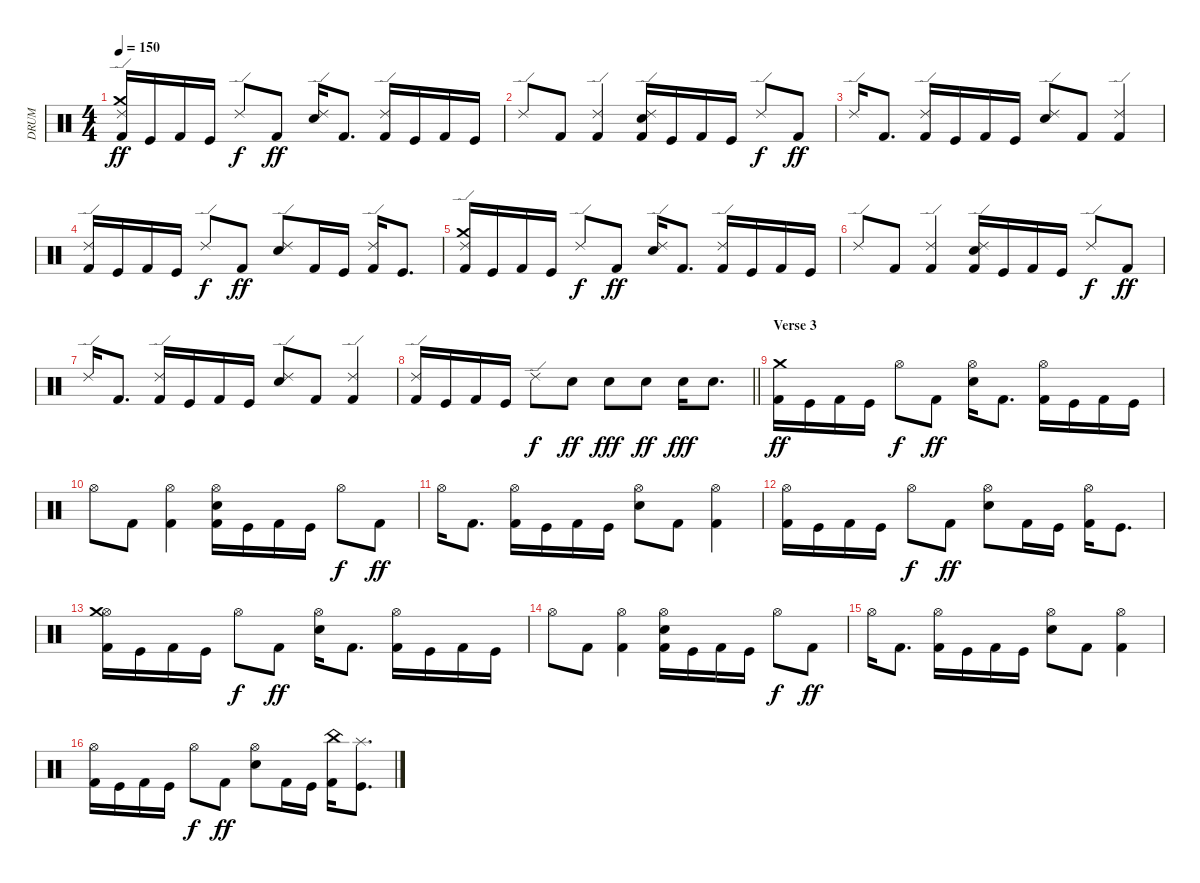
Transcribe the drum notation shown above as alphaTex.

\track ("DRUM" "DRUM") {instrument percussion}
\staff {score}
\articulation defaults
\ts (4 4)
\tempo 150
\clef neutral
\ks c
("Ride (edge) 2" "Crash medium (hit)" "Kick (hit) 2").16{dy ff} "Kick (hit)".16 "Kick (hit) 2".16 "Kick (hit)".16 "Ride (edge) 2".8{dy f} "Kick (hit) 2".8{dy ff} ("Ride (edge) 2" "Snare (hit) 2").16 "Kick (hit) 2".8{d} ("Ride (edge) 2" "Kick (hit) 2").16 "Kick (hit)".16 "Kick (hit) 2".16 "Kick (hit)".16 |
"Ride (edge) 2".8 "Kick (hit) 2".8 ("Ride (edge) 2" "Kick (hit) 2").4 ("Ride (edge) 2" "Snare (hit) 2" "Kick (hit) 2").16 "Kick (hit)".16 "Kick (hit) 2".16 "Kick (hit)".16 "Ride (edge) 2".8{dy f} "Kick (hit) 2".8{dy ff} |
"Ride (edge) 2".16 "Kick (hit) 2".8{d} ("Ride (edge) 2" "Kick (hit) 2").16 "Kick (hit)".16 "Kick (hit) 2".16 "Kick (hit)".16 ("Ride (edge) 2" "Snare (hit) 2").8 "Kick (hit) 2".8 ("Ride (edge) 2" "Kick (hit) 2").4 |
("Ride (edge) 2" "Kick (hit) 2").16 "Kick (hit)".16 "Kick (hit) 2".16 "Kick (hit)".16 "Ride (edge) 2".8{dy f} "Kick (hit) 2".8{dy ff} ("Ride (edge) 2" "Snare (hit) 2").8 "Kick (hit) 2".16 "Kick (hit)".16 ("Ride (edge) 2" "Kick (hit) 2").16 "Kick (hit)".8{d} |
("Ride (edge) 2" "Crash medium (hit)" "Kick (hit) 2").16 "Kick (hit)".16 "Kick (hit) 2".16 "Kick (hit)".16 "Ride (edge) 2".8{dy f} "Kick (hit) 2".8{dy ff} ("Ride (edge) 2" "Snare (hit) 2").16 "Kick (hit) 2".8{d} ("Ride (edge) 2" "Kick (hit) 2").16 "Kick (hit)".16 "Kick (hit) 2".16 "Kick (hit)".16 |
"Ride (edge) 2".8 "Kick (hit) 2".8 ("Ride (edge) 2" "Kick (hit) 2").4 ("Ride (edge) 2" "Snare (hit) 2" "Kick (hit) 2").16 "Kick (hit)".16 "Kick (hit) 2".16 "Kick (hit)".16 "Ride (edge) 2".8{dy f} "Kick (hit) 2".8{dy ff} |
"Ride (edge) 2".16 "Kick (hit) 2".8{d} ("Ride (edge) 2" "Kick (hit) 2").16 "Kick (hit)".16 "Kick (hit) 2".16 "Kick (hit)".16 ("Ride (edge) 2" "Snare (hit) 2").8 "Kick (hit) 2".8 ("Ride (edge) 2" "Kick (hit) 2").4 |
\barLineRight lightlight
("Ride (edge) 2" "Kick (hit) 2").16 "Kick (hit)".16 "Kick (hit) 2".16 "Kick (hit)".16 "Ride (edge) 2".8{dy f} "Snare (hit) 2".8{dy ff} "Electric Snare (hit)".8{dy fff} "Electric Snare (hit)".8{dy ff} "Electric Snare (hit)".16{dy fff} "Snare (hit) 2".8{d} |
\section ("" "Verse 3")
("Crash medium (hit)" "Kick (hit) 2").16{dy ff} "Kick (hit)".16 "Kick (hit) 2".16 "Kick (hit)".16 "Hi-Hat (open)".8{dy f} "Kick (hit) 2".8{dy ff} ("Hi-Hat (open)" "Snare (hit) 2").16 "Kick (hit) 2".8{d} ("Hi-Hat (open)" "Kick (hit) 2").16 "Kick (hit)".16 "Kick (hit) 2".16 "Kick (hit)".16 |
"Hi-Hat (open)".8 "Kick (hit) 2".8 ("Hi-Hat (open)" "Kick (hit) 2").4 ("Hi-Hat (open)" "Snare (hit) 2" "Kick (hit) 2").16 "Kick (hit)".16 "Kick (hit) 2".16 "Kick (hit)".16 "Hi-Hat (open)".8{dy f} "Kick (hit) 2".8{dy ff} |
"Hi-Hat (open)".16 "Kick (hit) 2".8{d} ("Hi-Hat (open)" "Kick (hit) 2").16 "Kick (hit)".16 "Kick (hit) 2".16 "Kick (hit)".16 ("Hi-Hat (open)" "Snare (hit) 2").8 "Kick (hit) 2".8 ("Hi-Hat (open)" "Kick (hit) 2").4 |
("Hi-Hat (open)" "Kick (hit) 2").16 "Kick (hit)".16 "Kick (hit) 2".16 "Kick (hit)".16 "Hi-Hat (open)".8{dy f} "Kick (hit) 2".8{dy ff} ("Hi-Hat (open)" "Snare (hit) 2").8 "Kick (hit) 2".16 "Kick (hit)".16 ("Hi-Hat (open)" "Kick (hit) 2").16 "Kick (hit)".8{d} |
("Hi-Hat (open)" "Crash medium (hit)" "Kick (hit) 2").16 "Kick (hit)".16 "Kick (hit) 2".16 "Kick (hit)".16 "Hi-Hat (open)".8{dy f} "Kick (hit) 2".8{dy ff} ("Hi-Hat (open)" "Snare (hit) 2").16 "Kick (hit) 2".8{d} ("Hi-Hat (open)" "Kick (hit) 2").16 "Kick (hit)".16 "Kick (hit) 2".16 "Kick (hit)".16 |
"Hi-Hat (open)".8 "Kick (hit) 2".8 ("Hi-Hat (open)" "Kick (hit) 2").4 ("Hi-Hat (open)" "Snare (hit) 2" "Kick (hit) 2").16 "Kick (hit)".16 "Kick (hit) 2".16 "Kick (hit)".16 "Hi-Hat (open)".8{dy f} "Kick (hit) 2".8{dy ff} |
"Hi-Hat (open)".16 "Kick (hit) 2".8{d} ("Hi-Hat (open)" "Kick (hit) 2").16 "Kick (hit)".16 "Kick (hit) 2".16 "Kick (hit)".16 ("Hi-Hat (open)" "Snare (hit) 2").8 "Kick (hit) 2".8 ("Hi-Hat (open)" "Kick (hit) 2").4 |
("Hi-Hat (open)" "Kick (hit) 2").16 "Kick (hit)".16 "Kick (hit) 2".16 "Kick (hit)".16 "Hi-Hat (open)".8{dy f} "Kick (hit) 2".8{dy ff} ("Hi-Hat (open)" "Snare (hit) 2").8 "Kick (hit) 2".16 "Kick (hit)".16 ("China (hit)" "Kick (hit) 2").16 ("Splash (hit)" "Kick (hit)").8{d}
